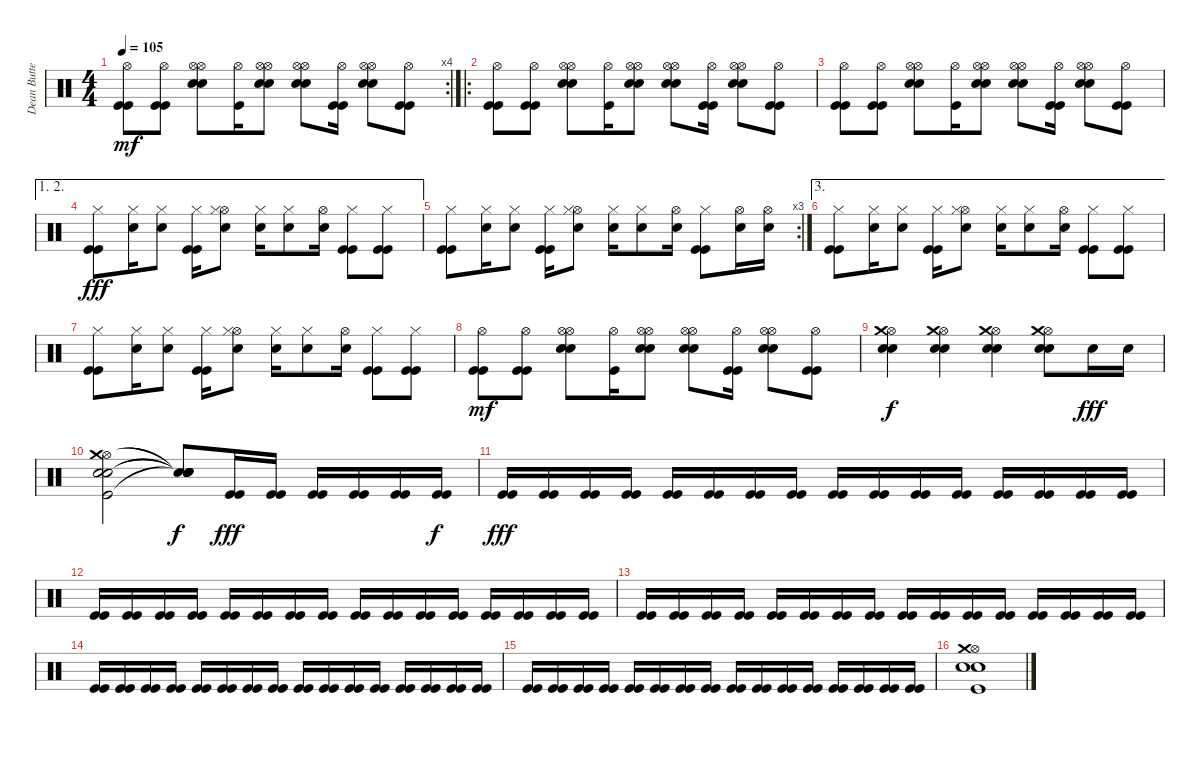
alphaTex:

\track ("Dean Butterworth" "Dean Butte") {instrument percussion}
\staff {score}
\articulation defaults
\rc 4
\ts (4 4)
\tempo 105
\clef neutral
\ks c
("Kick (hit)" "Kick (hit)" "Hi-Hat (open)").8{dy mf} ("Kick (hit)" "Kick (hit)" "Hi-Hat (open)").8 ("Electric Snare (hit)" "Snare (hit) 2" "Hi-Hat (open)" "Hi-Hat (open)").8 ("Kick (hit)" "Hi-Hat (open)").16 ("Electric Snare (hit)" "Snare (hit) 2" "Hi-Hat (open)" "Hi-Hat (open)").8 ("Electric Snare (hit)" "Snare (hit) 2" "Hi-Hat (open)" "Hi-Hat (open)").8 ("Kick (hit)" "Kick (hit)" "Hi-Hat (open)").16 ("Electric Snare (hit)" "Snare (hit) 2" "Hi-Hat (open)" "Hi-Hat (open)").8 ("Kick (hit)" "Kick (hit)" "Hi-Hat (open)").8 |
\ro
("Kick (hit)" "Kick (hit)" "Hi-Hat (open)").8 ("Kick (hit)" "Kick (hit)" "Hi-Hat (open)").8 ("Electric Snare (hit)" "Snare (hit) 2" "Hi-Hat (open)" "Hi-Hat (open)").8 ("Kick (hit)" "Hi-Hat (open)").16 ("Electric Snare (hit)" "Snare (hit) 2" "Hi-Hat (open)" "Hi-Hat (open)").8 ("Electric Snare (hit)" "Snare (hit) 2" "Hi-Hat (open)" "Hi-Hat (open)").8 ("Kick (hit)" "Kick (hit)" "Hi-Hat (open)").16 ("Electric Snare (hit)" "Snare (hit) 2" "Hi-Hat (open)" "Hi-Hat (open)").8 ("Kick (hit)" "Kick (hit)" "Hi-Hat (open)").8 |
("Kick (hit)" "Kick (hit)" "Hi-Hat (open)").8 ("Kick (hit)" "Kick (hit)" "Hi-Hat (open)").8 ("Electric Snare (hit)" "Snare (hit) 2" "Hi-Hat (open)" "Hi-Hat (open)").8 ("Kick (hit)" "Hi-Hat (open)").16 ("Electric Snare (hit)" "Snare (hit) 2" "Hi-Hat (open)" "Hi-Hat (open)").8 ("Electric Snare (hit)" "Snare (hit) 2" "Hi-Hat (open)" "Hi-Hat (open)").8 ("Kick (hit)" "Kick (hit)" "Hi-Hat (open)").16 ("Electric Snare (hit)" "Snare (hit) 2" "Hi-Hat (open)" "Hi-Hat (open)").8 ("Kick (hit)" "Kick (hit)" "Hi-Hat (open)").8 |
\ae (1 2)
("Kick (hit)" "Kick (hit)" "Hi-Hat (closed)").8{dy fff} ("Electric Snare (hit)" "Hi-Hat (closed)").16 ("Electric Snare (hit)" "Hi-Hat (closed)").8 ("Kick (hit)" "Kick (hit)" "Hi-Hat (closed)").16 ("Snare (hit) 2" "Hi-Hat (open)" "Hi-Hat (closed)").8 ("Electric Snare (hit)" "Hi-Hat (closed)").16 ("Electric Snare (hit)" "Hi-Hat (closed)").8 ("Snare (hit) 2" "Hi-Hat (open)").16 ("Kick (hit)" "Kick (hit)" "Hi-Hat (closed)").8 ("Kick (hit)" "Kick (hit)" "Hi-Hat (closed)").8 |
\rc 3
("Kick (hit)" "Kick (hit)" "Hi-Hat (closed)").8 ("Electric Snare (hit)" "Hi-Hat (closed)").16 ("Electric Snare (hit)" "Hi-Hat (closed)").8 ("Kick (hit)" "Kick (hit)" "Hi-Hat (closed)").16 ("Snare (hit) 2" "Hi-Hat (open)" "Hi-Hat (closed)").8 ("Electric Snare (hit)" "Hi-Hat (closed)").16 ("Electric Snare (hit)" "Hi-Hat (closed)").8 ("Snare (hit) 2" "Hi-Hat (open)").16 ("Kick (hit)" "Kick (hit)" "Hi-Hat (closed)").8 ("Snare (hit) 2" "Hi-Hat (open)").16 ("Snare (hit) 2" "Hi-Hat (open)").16 |
\ae 3
("Kick (hit)" "Kick (hit)" "Hi-Hat (closed)").8 ("Electric Snare (hit)" "Hi-Hat (closed)").16 ("Electric Snare (hit)" "Hi-Hat (closed)").8 ("Kick (hit)" "Kick (hit)" "Hi-Hat (closed)").16 ("Snare (hit) 2" "Hi-Hat (open)" "Hi-Hat (closed)").8 ("Electric Snare (hit)" "Hi-Hat (closed)").16 ("Electric Snare (hit)" "Hi-Hat (closed)").8 ("Snare (hit) 2" "Hi-Hat (open)").16 ("Kick (hit)" "Kick (hit)" "Hi-Hat (closed)").8 ("Kick (hit)" "Kick (hit)" "Hi-Hat (closed)").8 |
("Kick (hit)" "Kick (hit)" "Hi-Hat (closed)").8 ("Electric Snare (hit)" "Hi-Hat (closed)").16 ("Electric Snare (hit)" "Hi-Hat (closed)").8 ("Kick (hit)" "Kick (hit)" "Hi-Hat (closed)").16 ("Snare (hit) 2" "Hi-Hat (open)" "Hi-Hat (closed)").8 ("Electric Snare (hit)" "Hi-Hat (closed)").16 ("Electric Snare (hit)" "Hi-Hat (closed)").8 ("Snare (hit) 2" "Hi-Hat (open)").16 ("Kick (hit)" "Kick (hit)" "Hi-Hat (closed)").8 ("Kick (hit)" "Kick (hit)" "Hi-Hat (closed)").8 |
("Kick (hit)" "Kick (hit)" "Hi-Hat (open)").8{dy mf} ("Kick (hit)" "Kick (hit)" "Hi-Hat (open)").8 ("Electric Snare (hit)" "Snare (hit) 2" "Hi-Hat (open)" "Hi-Hat (open)").8 ("Kick (hit)" "Hi-Hat (open)").16 ("Electric Snare (hit)" "Snare (hit) 2" "Hi-Hat (open)" "Hi-Hat (open)").8 ("Electric Snare (hit)" "Snare (hit) 2" "Hi-Hat (open)" "Hi-Hat (open)").8 ("Kick (hit)" "Kick (hit)" "Hi-Hat (open)").16 ("Electric Snare (hit)" "Snare (hit) 2" "Hi-Hat (open)" "Hi-Hat (open)").8 ("Kick (hit)" "Kick (hit)" "Hi-Hat (open)").8 |
("Electric Snare (hit)" "Snare (hit) 2" "Hi-Hat (open)" "Crash medium (hit)").4{dy f} ("Electric Snare (hit)" "Snare (hit) 2" "Hi-Hat (open)" "Crash medium (hit)").4 ("Electric Snare (hit)" "Snare (hit) 2" "Hi-Hat (open)" "Crash medium (hit)").4 ("Electric Snare (hit)" "Snare (hit) 2" "Hi-Hat (open)" "Crash medium (hit)").8 "Snare (hit) 2".16{dy fff} "Snare (hit) 2".16 |
("Electric Snare (hit)" "Snare (hit) 2" "Hi-Hat (open)" "Kick (hit)" "Crash medium (hit)").2 ("Snare (hit)"{t} "Snare (hit)"{t} "Snare (hit)"{t} "Snare (hit)"{t} "Snare (hit)"{t}).8{dy f} ("Kick (hit)" "Kick (hit)").16{dy fff} ("Kick (hit)" "Kick (hit)").16 ("Kick (hit)" "Kick (hit)").16 ("Kick (hit)" "Kick (hit)").16 ("Kick (hit)" "Kick (hit)").16 ("Kick (hit)" "Kick (hit)").16{dy f} |
("Kick (hit)" "Kick (hit)").16{dy fff} ("Kick (hit)" "Kick (hit)").16 ("Kick (hit)" "Kick (hit)").16 ("Kick (hit)" "Kick (hit)").16 ("Kick (hit)" "Kick (hit)").16 ("Kick (hit)" "Kick (hit)").16 ("Kick (hit)" "Kick (hit)").16 ("Kick (hit)" "Kick (hit)").16 ("Kick (hit)" "Kick (hit)").16 ("Kick (hit)" "Kick (hit)").16 ("Kick (hit)" "Kick (hit)").16 ("Kick (hit)" "Kick (hit)").16 ("Kick (hit)" "Kick (hit)").16 ("Kick (hit)" "Kick (hit)").16 ("Kick (hit)" "Kick (hit)").16 ("Kick (hit)" "Kick (hit)").16 |
("Kick (hit)" "Kick (hit)").16 ("Kick (hit)" "Kick (hit)").16 ("Kick (hit)" "Kick (hit)").16 ("Kick (hit)" "Kick (hit)").16 ("Kick (hit)" "Kick (hit)").16 ("Kick (hit)" "Kick (hit)").16 ("Kick (hit)" "Kick (hit)").16 ("Kick (hit)" "Kick (hit)").16 ("Kick (hit)" "Kick (hit)").16 ("Kick (hit)" "Kick (hit)").16 ("Kick (hit)" "Kick (hit)").16 ("Kick (hit)" "Kick (hit)").16 ("Kick (hit)" "Kick (hit)").16 ("Kick (hit)" "Kick (hit)").16 ("Kick (hit)" "Kick (hit)").16 ("Kick (hit)" "Kick (hit)").16 |
("Kick (hit)" "Kick (hit)").16 ("Kick (hit)" "Kick (hit)").16 ("Kick (hit)" "Kick (hit)").16 ("Kick (hit)" "Kick (hit)").16 ("Kick (hit)" "Kick (hit)").16 ("Kick (hit)" "Kick (hit)").16 ("Kick (hit)" "Kick (hit)").16 ("Kick (hit)" "Kick (hit)").16 ("Kick (hit)" "Kick (hit)").16 ("Kick (hit)" "Kick (hit)").16 ("Kick (hit)" "Kick (hit)").16 ("Kick (hit)" "Kick (hit)").16 ("Kick (hit)" "Kick (hit)").16 ("Kick (hit)" "Kick (hit)").16 ("Kick (hit)" "Kick (hit)").16 ("Kick (hit)" "Kick (hit)").16 |
("Kick (hit)" "Kick (hit)").16 ("Kick (hit)" "Kick (hit)").16 ("Kick (hit)" "Kick (hit)").16 ("Kick (hit)" "Kick (hit)").16 ("Kick (hit)" "Kick (hit)").16 ("Kick (hit)" "Kick (hit)").16 ("Kick (hit)" "Kick (hit)").16 ("Kick (hit)" "Kick (hit)").16 ("Kick (hit)" "Kick (hit)").16 ("Kick (hit)" "Kick (hit)").16 ("Kick (hit)" "Kick (hit)").16 ("Kick (hit)" "Kick (hit)").16 ("Kick (hit)" "Kick (hit)").16 ("Kick (hit)" "Kick (hit)").16 ("Kick (hit)" "Kick (hit)").16 ("Kick (hit)" "Kick (hit)").16 |
("Kick (hit)" "Kick (hit)").16 ("Kick (hit)" "Kick (hit)").16 ("Kick (hit)" "Kick (hit)").16 ("Kick (hit)" "Kick (hit)").16 ("Kick (hit)" "Kick (hit)").16 ("Kick (hit)" "Kick (hit)").16 ("Kick (hit)" "Kick (hit)").16 ("Kick (hit)" "Kick (hit)").16 ("Kick (hit)" "Kick (hit)").16 ("Kick (hit)" "Kick (hit)").16 ("Kick (hit)" "Kick (hit)").16 ("Kick (hit)" "Kick (hit)").16 ("Kick (hit)" "Kick (hit)").16 ("Kick (hit)" "Kick (hit)").16 ("Kick (hit)" "Kick (hit)").16 ("Kick (hit)" "Kick (hit)").16 |
("Electric Snare (hit)" "Snare (hit) 2" "Hi-Hat (open)" "Kick (hit)" "Crash medium (hit)").1
